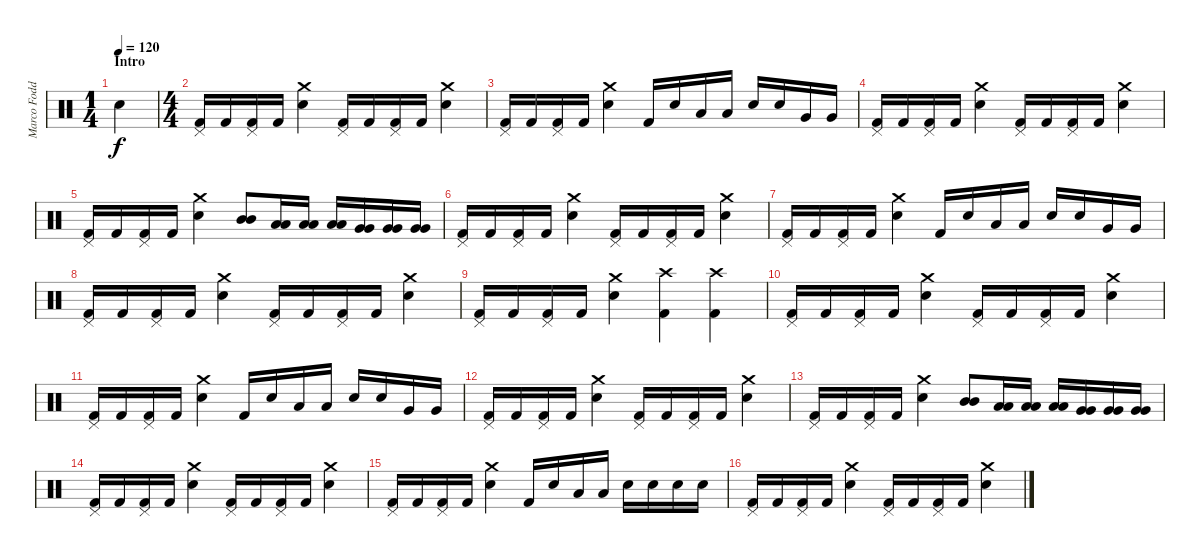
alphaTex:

\track ("Marco Foddis " "Marco Fodd") {instrument percussion}
\staff {score}
\articulation defaults
\ts (1 4)
\section ("" "Intro")
\tempo 120
\tempo 200
\tempo 120
\clef neutral
\ks c "Electric Snare (hit)".4{dy f}
|
\ts (4 4)
("Pedal Hi-Hat (hit)" "Kick (hit) 2").16 "Kick (hit) 2".16 ("Pedal Hi-Hat (hit)" "Kick (hit) 2").16 "Kick (hit) 2".16 ("Crash medium (hit)" "Electric Snare (hit)").4 ("Pedal Hi-Hat (hit)" "Kick (hit) 2").16 "Kick (hit) 2".16 ("Pedal Hi-Hat (hit)" "Kick (hit) 2").16 "Kick (hit) 2".16 ("Crash medium (hit)" "Electric Snare (hit)").4 |
("Pedal Hi-Hat (hit)" "Kick (hit) 2").16 "Kick (hit) 2".16 ("Pedal Hi-Hat (hit)" "Kick (hit) 2").16 "Kick (hit) 2".16 ("Crash medium (hit)" "Electric Snare (hit)").4 "Kick (hit) 2".16 "Electric Snare (hit)".16 "Low Tom (hit)".16 "Low Tom (hit)".16 "Electric Snare (hit)".16 "Electric Snare (hit)".16 "Very Low Tom (hit)".16 "Very Low Tom (hit)".16 |
("Pedal Hi-Hat (hit)" "Kick (hit) 2").16 "Kick (hit) 2".16 ("Pedal Hi-Hat (hit)" "Kick (hit) 2").16 "Kick (hit) 2".16 ("Crash medium (hit)" "Electric Snare (hit)").4 ("Pedal Hi-Hat (hit)" "Kick (hit) 2").16 "Kick (hit) 2".16 ("Pedal Hi-Hat (hit)" "Kick (hit) 2").16 "Kick (hit) 2".16 ("Crash medium (hit)" "Electric Snare (hit)").4 |
("Pedal Hi-Hat (hit)" "Kick (hit) 2").16 "Kick (hit) 2".16 ("Pedal Hi-Hat (hit)" "Kick (hit) 2").16 "Kick (hit) 2".16 ("Crash medium (hit)" "Electric Snare (hit)").4 ("Mid Tom (hit)" "Mid Tom (hit)").8 ("Low Tom (hit)" "Low Tom (hit)").16 ("Low Tom (hit)" "Low Tom (hit)").16 ("Low Tom (hit)" "Low Tom (hit)").16 ("Very Low Tom (hit)" "Very Low Tom (hit)").16 ("Very Low Tom (hit)" "Very Low Tom (hit)").16 ("Very Low Tom (hit)" "Very Low Tom (hit)").16 |
("Pedal Hi-Hat (hit)" "Kick (hit) 2").16 "Kick (hit) 2".16 ("Pedal Hi-Hat (hit)" "Kick (hit) 2").16 "Kick (hit) 2".16 ("Crash medium (hit)" "Electric Snare (hit)").4 ("Pedal Hi-Hat (hit)" "Kick (hit) 2").16 "Kick (hit) 2".16 ("Pedal Hi-Hat (hit)" "Kick (hit) 2").16 "Kick (hit) 2".16 ("Crash medium (hit)" "Electric Snare (hit)").4 |
("Pedal Hi-Hat (hit)" "Kick (hit) 2").16 "Kick (hit) 2".16 ("Pedal Hi-Hat (hit)" "Kick (hit) 2").16 "Kick (hit) 2".16 ("Crash medium (hit)" "Electric Snare (hit)").4 "Kick (hit) 2".16 "Electric Snare (hit)".16 "Low Tom (hit)".16 "Low Tom (hit)".16 "Electric Snare (hit)".16 "Electric Snare (hit)".16 "Very Low Tom (hit)".16 "Very Low Tom (hit)".16 |
("Pedal Hi-Hat (hit)" "Kick (hit) 2").16 "Kick (hit) 2".16 ("Pedal Hi-Hat (hit)" "Kick (hit) 2").16 "Kick (hit) 2".16 ("Crash medium (hit)" "Electric Snare (hit)").4 ("Pedal Hi-Hat (hit)" "Kick (hit) 2").16 "Kick (hit) 2".16 ("Pedal Hi-Hat (hit)" "Kick (hit) 2").16 "Kick (hit) 2".16 ("Crash medium (hit)" "Electric Snare (hit)").4 |
("Pedal Hi-Hat (hit)" "Kick (hit) 2").16 "Kick (hit) 2".16 ("Pedal Hi-Hat (hit)" "Kick (hit) 2").16 "Kick (hit) 2".16 ("Crash medium (hit)" "Electric Snare (hit)").4 ("Crash high (hit)" "Kick (hit) 2").4 ("Crash high (hit)" "Kick (hit) 2").4 |
("Pedal Hi-Hat (hit)" "Kick (hit) 2").16 "Kick (hit) 2".16 ("Pedal Hi-Hat (hit)" "Kick (hit) 2").16 "Kick (hit) 2".16 ("Crash medium (hit)" "Electric Snare (hit)").4 ("Pedal Hi-Hat (hit)" "Kick (hit) 2").16 "Kick (hit) 2".16 ("Pedal Hi-Hat (hit)" "Kick (hit) 2").16 "Kick (hit) 2".16 ("Crash medium (hit)" "Electric Snare (hit)").4 |
("Pedal Hi-Hat (hit)" "Kick (hit) 2").16 "Kick (hit) 2".16 ("Pedal Hi-Hat (hit)" "Kick (hit) 2").16 "Kick (hit) 2".16 ("Crash medium (hit)" "Electric Snare (hit)").4 "Kick (hit) 2".16 "Electric Snare (hit)".16 "Low Tom (hit)".16 "Low Tom (hit)".16 "Electric Snare (hit)".16 "Electric Snare (hit)".16 "Very Low Tom (hit)".16 "Very Low Tom (hit)".16 |
("Pedal Hi-Hat (hit)" "Kick (hit) 2").16 "Kick (hit) 2".16 ("Pedal Hi-Hat (hit)" "Kick (hit) 2").16 "Kick (hit) 2".16 ("Crash medium (hit)" "Electric Snare (hit)").4 ("Pedal Hi-Hat (hit)" "Kick (hit) 2").16 "Kick (hit) 2".16 ("Pedal Hi-Hat (hit)" "Kick (hit) 2").16 "Kick (hit) 2".16 ("Crash medium (hit)" "Electric Snare (hit)").4 |
("Pedal Hi-Hat (hit)" "Kick (hit) 2").16 "Kick (hit) 2".16 ("Pedal Hi-Hat (hit)" "Kick (hit) 2").16 "Kick (hit) 2".16 ("Crash medium (hit)" "Electric Snare (hit)").4 ("Mid Tom (hit)" "Mid Tom (hit)").8 ("Low Tom (hit)" "Low Tom (hit)").16 ("Low Tom (hit)" "Low Tom (hit)").16 ("Low Tom (hit)" "Low Tom (hit)").16 ("Very Low Tom (hit)" "Very Low Tom (hit)").16 ("Very Low Tom (hit)" "Very Low Tom (hit)").16 ("Very Low Tom (hit)" "Very Low Tom (hit)").16 |
("Pedal Hi-Hat (hit)" "Kick (hit) 2").16 "Kick (hit) 2".16 ("Pedal Hi-Hat (hit)" "Kick (hit) 2").16 "Kick (hit) 2".16 ("Crash medium (hit)" "Electric Snare (hit)").4 ("Pedal Hi-Hat (hit)" "Kick (hit) 2").16 "Kick (hit) 2".16 ("Pedal Hi-Hat (hit)" "Kick (hit) 2").16 "Kick (hit) 2".16 ("Crash medium (hit)" "Electric Snare (hit)").4 |
("Pedal Hi-Hat (hit)" "Kick (hit) 2").16 "Kick (hit) 2".16 ("Pedal Hi-Hat (hit)" "Kick (hit) 2").16 "Kick (hit) 2".16 ("Crash medium (hit)" "Electric Snare (hit)").4 "Kick (hit) 2".16 "Electric Snare (hit)".16 "Low Tom (hit)".16 "Low Tom (hit)".16 "Electric Snare (hit)".16 "Electric Snare (hit)".16 "Electric Snare (hit)".16 "Electric Snare (hit)".16 |
("Pedal Hi-Hat (hit)" "Kick (hit) 2").16 "Kick (hit) 2".16 ("Pedal Hi-Hat (hit)" "Kick (hit) 2").16 "Kick (hit) 2".16 ("Crash medium (hit)" "Electric Snare (hit)").4 ("Pedal Hi-Hat (hit)" "Kick (hit) 2").16 "Kick (hit) 2".16 ("Pedal Hi-Hat (hit)" "Kick (hit) 2").16 "Kick (hit) 2".16 ("Crash medium (hit)" "Electric Snare (hit)").4
